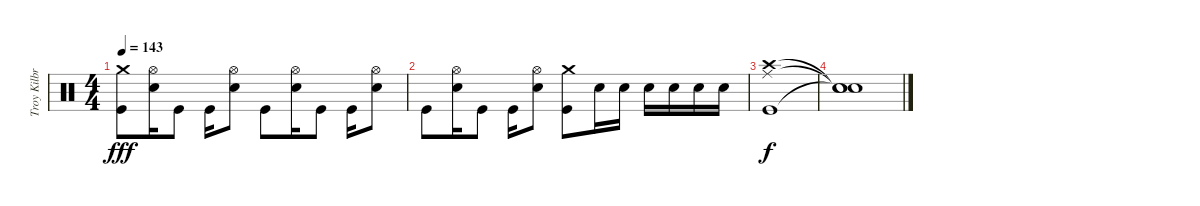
\track ("Troy Kilbride" "Troy Kilbr") {instrument percussion}
\staff {score}
\articulation defaults
\ts (4 4)
\tempo 143
\clef neutral
\ks c
("Crash medium (hit)" "Kick (hit)").8{dy fff} ("Hi-Hat (open)" "Electric Snare (hit)").16 "Kick (hit)".8 "Kick (hit)".16 ("Hi-Hat (open)" "Electric Snare (hit)").8 "Kick (hit)".8 ("Hi-Hat (open)" "Electric Snare (hit)").16 "Kick (hit)".8 "Kick (hit)".16 ("Hi-Hat (open)" "Electric Snare (hit)").8 |
"Kick (hit)".8 ("Hi-Hat (open)" "Electric Snare (hit)").16 "Kick (hit)".8 "Kick (hit)".16 ("Hi-Hat (open)" "Electric Snare (hit)").8 ("Crash medium (hit)" "Kick (hit)").8 "Electric Snare (hit)".16 "Electric Snare (hit)".16 "Electric Snare (hit)".16 "Electric Snare (hit)".16 "Electric Snare (hit)".16 "Electric Snare (hit)".16 |
("Crash high (hit)" "Ride (middle)" "Kick (hit)").1{dy f} |
("Snare (hit)"{t} "Snare (hit)"{t} "Snare (hit)"{t}).1
